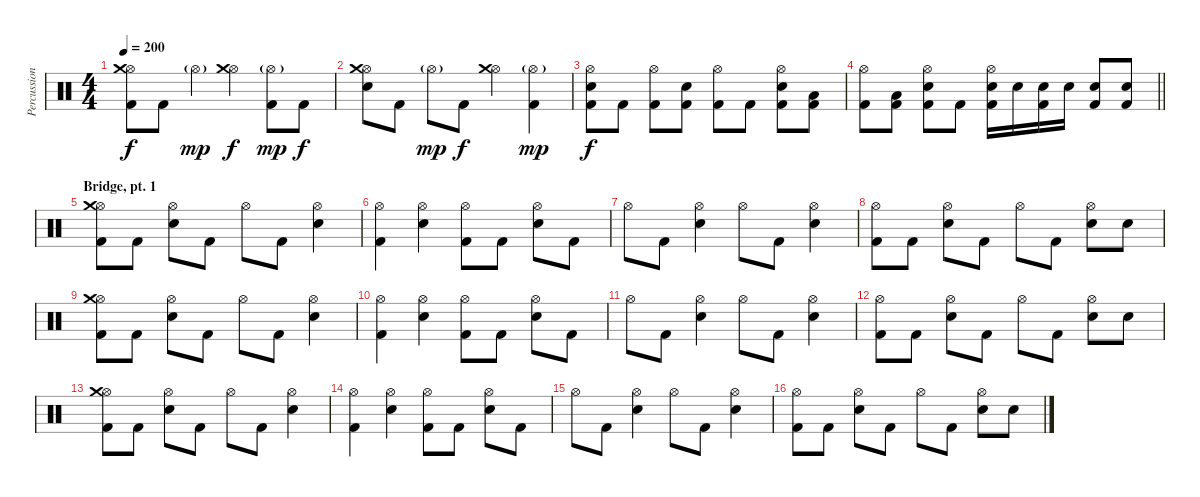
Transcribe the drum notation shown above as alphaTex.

\track ("Percussions" "Percussion") {instrument percussion}
\staff {score}
\articulation defaults
\ts (4 4)
\tempo 200
\clef neutral
\ks c
("Hi-Hat (open)" "Crash medium (hit)" "Kick (hit) 2").8{dy f} "Kick (hit) 2".8 "Hi-Hat (open)"{g}.4{dy mp} ("Hi-Hat (open)" "Crash medium (hit)").4{dy f} ("Hi-Hat (open)"{g} "Kick (hit) 2").8{dy mp} "Kick (hit) 2".8{dy f} |
("Hi-Hat (open)" "Crash medium (hit)" "Electric Snare (hit)").8 "Kick (hit) 2".8 "Hi-Hat (open)"{g}.8{dy mp} "Kick (hit) 2".8{dy f} ("Hi-Hat (open)" "Crash medium (hit)").4 ("Hi-Hat (open)"{g} "Kick (hit) 2").4{dy mp} |
("Hi-Hat (open)" "Electric Snare (hit)" "Kick (hit) 2").8{dy f} "Kick (hit) 2".8 ("Hi-Hat (open)" "Kick (hit) 2").8 ("Electric Snare (hit)" "Kick (hit) 2").8 ("Hi-Hat (open)" "Kick (hit) 2").8 "Kick (hit) 2".8 ("Hi-Hat (open)" "Electric Snare (hit)" "Kick (hit) 2").8 ("Low Tom (hit)" "Kick (hit) 2").8 |
\barLineRight lightlight
("Hi-Hat (open)" "Kick (hit) 2").8 ("Low Tom (hit)" "Kick (hit) 2").8 ("Hi-Hat (open)" "Electric Snare (hit)" "Kick (hit) 2").8 "Kick (hit) 2".8 ("Hi-Hat (open)" "Electric Snare (hit)" "Kick (hit) 2").16 "Electric Snare (hit)".16 ("Electric Snare (hit)" "Kick (hit) 2").16 "Electric Snare (hit)".16 ("Electric Snare (hit)" "Kick (hit) 2").8 ("Electric Snare (hit)" "Kick (hit) 2").8 |
\section ("" "Bridge, pt. 1")
("Hi-Hat (open)" "Crash medium (hit)" "Kick (hit) 2").8 "Kick (hit) 2".8 ("Hi-Hat (open)" "Electric Snare (hit)").8 "Kick (hit) 2".8 "Hi-Hat (open)".8 "Kick (hit) 2".8 ("Hi-Hat (open)" "Electric Snare (hit)").4 |
("Hi-Hat (open)" "Kick (hit) 2").4 ("Hi-Hat (open)" "Electric Snare (hit)").4 ("Hi-Hat (open)" "Kick (hit) 2").8 "Kick (hit) 2".8 ("Hi-Hat (open)" "Electric Snare (hit)").8 "Kick (hit) 2".8 |
"Hi-Hat (open)".8 "Kick (hit) 2".8 ("Hi-Hat (open)" "Electric Snare (hit)").4 "Hi-Hat (open)".8 "Kick (hit) 2".8 ("Hi-Hat (open)" "Electric Snare (hit)").4 |
("Hi-Hat (open)" "Kick (hit) 2").8 "Kick (hit) 2".8 ("Hi-Hat (open)" "Electric Snare (hit)").8 "Kick (hit) 2".8 "Hi-Hat (open)".8 "Kick (hit) 2".8 ("Hi-Hat (open)" "Electric Snare (hit)").8 "Electric Snare (hit)".8 |
("Hi-Hat (open)" "Crash medium (hit)" "Kick (hit) 2").8 "Kick (hit) 2".8 ("Hi-Hat (open)" "Electric Snare (hit)").8 "Kick (hit) 2".8 "Hi-Hat (open)".8 "Kick (hit) 2".8 ("Hi-Hat (open)" "Electric Snare (hit)").4 |
("Hi-Hat (open)" "Kick (hit) 2").4 ("Hi-Hat (open)" "Electric Snare (hit)").4 ("Hi-Hat (open)" "Kick (hit) 2").8 "Kick (hit) 2".8 ("Hi-Hat (open)" "Electric Snare (hit)").8 "Kick (hit) 2".8 |
"Hi-Hat (open)".8 "Kick (hit) 2".8 ("Hi-Hat (open)" "Electric Snare (hit)").4 "Hi-Hat (open)".8 "Kick (hit) 2".8 ("Hi-Hat (open)" "Electric Snare (hit)").4 |
("Hi-Hat (open)" "Kick (hit) 2").8 "Kick (hit) 2".8 ("Hi-Hat (open)" "Electric Snare (hit)").8 "Kick (hit) 2".8 "Hi-Hat (open)".8 "Kick (hit) 2".8 ("Hi-Hat (open)" "Electric Snare (hit)").8 "Electric Snare (hit)".8 |
("Hi-Hat (open)" "Crash medium (hit)" "Kick (hit) 2").8 "Kick (hit) 2".8 ("Hi-Hat (open)" "Electric Snare (hit)").8 "Kick (hit) 2".8 "Hi-Hat (open)".8 "Kick (hit) 2".8 ("Hi-Hat (open)" "Electric Snare (hit)").4 |
("Hi-Hat (open)" "Kick (hit) 2").4 ("Hi-Hat (open)" "Electric Snare (hit)").4 ("Hi-Hat (open)" "Kick (hit) 2").8 "Kick (hit) 2".8 ("Hi-Hat (open)" "Electric Snare (hit)").8 "Kick (hit) 2".8 |
"Hi-Hat (open)".8 "Kick (hit) 2".8 ("Hi-Hat (open)" "Electric Snare (hit)").4 "Hi-Hat (open)".8 "Kick (hit) 2".8 ("Hi-Hat (open)" "Electric Snare (hit)").4 |
("Hi-Hat (open)" "Kick (hit) 2").8 "Kick (hit) 2".8 ("Hi-Hat (open)" "Electric Snare (hit)").8 "Kick (hit) 2".8 "Hi-Hat (open)".8 "Kick (hit) 2".8 ("Hi-Hat (open)" "Electric Snare (hit)").8 "Electric Snare (hit)".8
